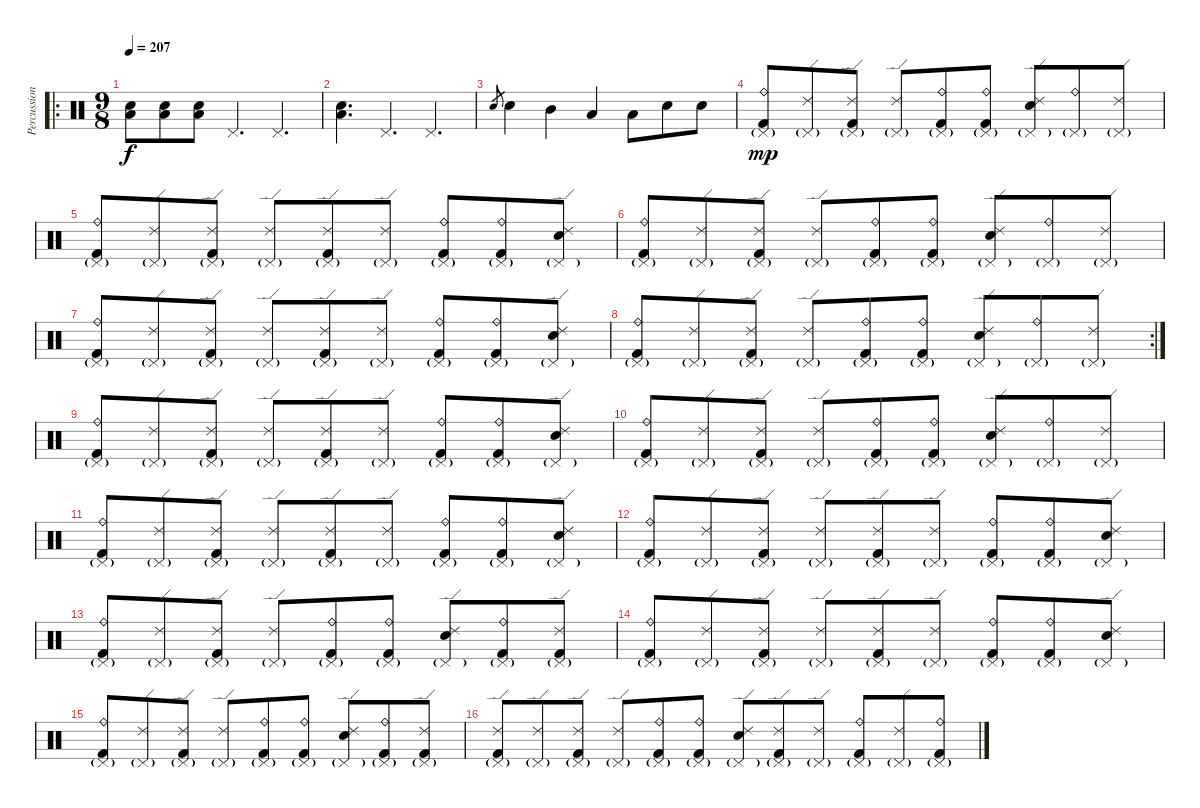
\track ("Percussion" "Percussion") {instrument percussion}
\staff {score}
\articulation defaults
\ro
\ts (9 8)
\tempo 207
\clef neutral
\ks c
("Low Floor Tom (hit)" "Electric Snare (hit)").8{dy f} ("Low Floor Tom (hit)" "Electric Snare (hit)").8 ("Low Floor Tom (hit)" "Electric Snare (hit)").8 "Pedal Hi-Hat (hit)".4{d} "Pedal Hi-Hat (hit)".4{d} |
("Low Floor Tom (hit)" "Electric Snare (hit)").4{d} "Pedal Hi-Hat (hit)".4{d} "Pedal Hi-Hat (hit)".4{d} |
"Electric Snare (hit)".8{gr} "Electric Snare (hit)".4 "Mid Tom (hit)".4 "Low Tom (hit)".4 "Low Tom (hit)".8 "Electric Snare (hit)".8 "Electric Snare (hit)".8 |
("Ride (bell)" "Pedal Hi-Hat (hit)"{g} "Kick (hit) 2").8{dy mp} ("Ride (edge) 2" "Pedal Hi-Hat (hit)"{g}).8 ("Ride (edge) 2" "Pedal Hi-Hat (hit)"{g} "Kick (hit) 2").8 ("Ride (edge) 2" "Pedal Hi-Hat (hit)"{g}).8 ("Ride (bell)" "Pedal Hi-Hat (hit)"{g} "Kick (hit) 2").8 ("Ride (bell)" "Pedal Hi-Hat (hit)"{g} "Kick (hit) 2").8 ("Ride (edge) 2" "Pedal Hi-Hat (hit)"{g} "Electric Snare (hit)").8 ("Ride (bell)" "Pedal Hi-Hat (hit)"{g}).8 ("Ride (edge) 2" "Pedal Hi-Hat (hit)"{g}).8 |
("Ride (bell)" "Pedal Hi-Hat (hit)"{g} "Kick (hit) 2").8 ("Ride (edge) 2" "Pedal Hi-Hat (hit)"{g}).8 ("Ride (edge) 2" "Pedal Hi-Hat (hit)"{g} "Kick (hit) 2").8 ("Ride (edge) 2" "Pedal Hi-Hat (hit)"{g}).8 ("Ride (edge) 2" "Pedal Hi-Hat (hit)"{g} "Kick (hit) 2").8 ("Ride (edge) 2" "Pedal Hi-Hat (hit)"{g}).8 ("Ride (bell)" "Pedal Hi-Hat (hit)"{g} "Kick (hit) 2").8 ("Ride (bell)" "Pedal Hi-Hat (hit)"{g} "Kick (hit) 2").8 ("Ride (edge) 2" "Pedal Hi-Hat (hit)"{g} "Electric Snare (hit)").8 |
("Ride (bell)" "Pedal Hi-Hat (hit)"{g} "Kick (hit) 2").8 ("Ride (edge) 2" "Pedal Hi-Hat (hit)"{g}).8 ("Ride (edge) 2" "Pedal Hi-Hat (hit)"{g} "Kick (hit) 2").8 ("Ride (edge) 2" "Pedal Hi-Hat (hit)"{g}).8 ("Ride (bell)" "Pedal Hi-Hat (hit)"{g} "Kick (hit) 2").8 ("Ride (bell)" "Pedal Hi-Hat (hit)"{g} "Kick (hit) 2").8 ("Ride (edge) 2" "Pedal Hi-Hat (hit)"{g} "Electric Snare (hit)").8 ("Ride (bell)" "Pedal Hi-Hat (hit)"{g}).8 ("Ride (edge) 2" "Pedal Hi-Hat (hit)"{g}).8 |
("Ride (bell)" "Pedal Hi-Hat (hit)"{g} "Kick (hit) 2").8 ("Ride (edge) 2" "Pedal Hi-Hat (hit)"{g}).8 ("Ride (edge) 2" "Pedal Hi-Hat (hit)"{g} "Kick (hit) 2").8 ("Ride (edge) 2" "Pedal Hi-Hat (hit)"{g}).8 ("Ride (edge) 2" "Pedal Hi-Hat (hit)"{g} "Kick (hit) 2").8 ("Ride (edge) 2" "Pedal Hi-Hat (hit)"{g}).8 ("Ride (bell)" "Pedal Hi-Hat (hit)"{g} "Kick (hit) 2").8 ("Ride (bell)" "Pedal Hi-Hat (hit)"{g} "Kick (hit) 2").8 ("Ride (edge) 2" "Pedal Hi-Hat (hit)"{g} "Electric Snare (hit)").8 |
\rc 2
("Ride (bell)" "Pedal Hi-Hat (hit)"{g} "Kick (hit) 2").8 ("Ride (edge) 2" "Pedal Hi-Hat (hit)"{g}).8 ("Ride (edge) 2" "Pedal Hi-Hat (hit)"{g} "Kick (hit) 2").8 ("Ride (edge) 2" "Pedal Hi-Hat (hit)"{g}).8 ("Ride (bell)" "Pedal Hi-Hat (hit)"{g} "Kick (hit) 2").8 ("Ride (bell)" "Pedal Hi-Hat (hit)"{g} "Kick (hit) 2").8 ("Ride (edge) 2" "Pedal Hi-Hat (hit)"{g} "Electric Snare (hit)").8 ("Ride (bell)" "Pedal Hi-Hat (hit)"{g}).8 ("Ride (edge) 2" "Pedal Hi-Hat (hit)"{g}).8 |
("Ride (bell)" "Pedal Hi-Hat (hit)"{g} "Kick (hit) 2").8 ("Ride (edge) 2" "Pedal Hi-Hat (hit)"{g}).8 ("Ride (edge) 2" "Pedal Hi-Hat (hit)"{g} "Kick (hit) 2").8 ("Ride (edge) 2" "Pedal Hi-Hat (hit)"{g}).8 ("Ride (edge) 2" "Pedal Hi-Hat (hit)"{g} "Kick (hit) 2").8 ("Ride (edge) 2" "Pedal Hi-Hat (hit)"{g}).8 ("Ride (bell)" "Pedal Hi-Hat (hit)"{g} "Kick (hit) 2").8 ("Ride (bell)" "Pedal Hi-Hat (hit)"{g} "Kick (hit) 2").8 ("Ride (edge) 2" "Pedal Hi-Hat (hit)"{g} "Electric Snare (hit)").8 |
("Ride (bell)" "Pedal Hi-Hat (hit)"{g} "Kick (hit) 2").8 ("Ride (edge) 2" "Pedal Hi-Hat (hit)"{g}).8 ("Ride (edge) 2" "Pedal Hi-Hat (hit)"{g} "Kick (hit) 2").8 ("Ride (edge) 2" "Pedal Hi-Hat (hit)"{g}).8 ("Ride (bell)" "Pedal Hi-Hat (hit)"{g} "Kick (hit) 2").8 ("Ride (bell)" "Pedal Hi-Hat (hit)"{g} "Kick (hit) 2").8 ("Ride (edge) 2" "Pedal Hi-Hat (hit)"{g} "Electric Snare (hit)").8 ("Ride (bell)" "Pedal Hi-Hat (hit)"{g}).8 ("Ride (edge) 2" "Pedal Hi-Hat (hit)"{g}).8 |
("Ride (bell)" "Pedal Hi-Hat (hit)"{g} "Kick (hit) 2").8 ("Ride (edge) 2" "Pedal Hi-Hat (hit)"{g}).8 ("Ride (edge) 2" "Pedal Hi-Hat (hit)"{g} "Kick (hit) 2").8 ("Ride (edge) 2" "Pedal Hi-Hat (hit)"{g}).8 ("Ride (edge) 2" "Pedal Hi-Hat (hit)"{g} "Kick (hit) 2").8 ("Ride (edge) 2" "Pedal Hi-Hat (hit)"{g}).8 ("Ride (bell)" "Pedal Hi-Hat (hit)"{g} "Kick (hit) 2").8 ("Ride (bell)" "Pedal Hi-Hat (hit)"{g} "Kick (hit) 2").8 ("Ride (edge) 2" "Pedal Hi-Hat (hit)"{g} "Electric Snare (hit)").8 |
("Ride (bell)" "Pedal Hi-Hat (hit)"{g} "Kick (hit) 2").8 ("Ride (edge) 2" "Pedal Hi-Hat (hit)"{g}).8 ("Ride (edge) 2" "Pedal Hi-Hat (hit)"{g} "Kick (hit) 2").8 ("Ride (edge) 2" "Pedal Hi-Hat (hit)"{g}).8 ("Ride (edge) 2" "Pedal Hi-Hat (hit)"{g} "Kick (hit) 2").8 ("Ride (edge) 2" "Pedal Hi-Hat (hit)"{g}).8 ("Ride (bell)" "Pedal Hi-Hat (hit)"{g} "Kick (hit) 2").8 ("Ride (bell)" "Pedal Hi-Hat (hit)"{g} "Kick (hit) 2").8 ("Ride (edge) 2" "Pedal Hi-Hat (hit)"{g} "Electric Snare (hit)").8 |
("Ride (bell)" "Pedal Hi-Hat (hit)"{g} "Kick (hit) 2").8 ("Ride (edge) 2" "Pedal Hi-Hat (hit)"{g}).8 ("Ride (edge) 2" "Pedal Hi-Hat (hit)"{g} "Kick (hit) 2").8 ("Ride (edge) 2" "Pedal Hi-Hat (hit)"{g}).8 ("Ride (bell)" "Pedal Hi-Hat (hit)"{g} "Kick (hit) 2").8 ("Ride (bell)" "Pedal Hi-Hat (hit)"{g} "Kick (hit) 2").8 ("Ride (edge) 2" "Pedal Hi-Hat (hit)"{g} "Electric Snare (hit)").8 ("Ride (bell)" "Pedal Hi-Hat (hit)"{g} "Kick (hit) 2").8 ("Ride (edge) 2" "Pedal Hi-Hat (hit)"{g} "Kick (hit) 2").8 |
("Ride (bell)" "Pedal Hi-Hat (hit)"{g} "Kick (hit) 2").8 ("Ride (edge) 2" "Pedal Hi-Hat (hit)"{g}).8 ("Ride (edge) 2" "Pedal Hi-Hat (hit)"{g} "Kick (hit) 2").8 ("Ride (edge) 2" "Pedal Hi-Hat (hit)"{g}).8 ("Ride (edge) 2" "Pedal Hi-Hat (hit)"{g} "Kick (hit) 2").8 ("Ride (edge) 2" "Pedal Hi-Hat (hit)"{g}).8 ("Ride (bell)" "Pedal Hi-Hat (hit)"{g} "Kick (hit) 2").8 ("Ride (bell)" "Pedal Hi-Hat (hit)"{g} "Kick (hit) 2").8 ("Ride (edge) 2" "Pedal Hi-Hat (hit)"{g} "Electric Snare (hit)").8 |
("Ride (bell)" "Pedal Hi-Hat (hit)"{g} "Kick (hit) 2").8 ("Ride (edge) 2" "Pedal Hi-Hat (hit)"{g}).8 ("Ride (edge) 2" "Pedal Hi-Hat (hit)"{g} "Kick (hit) 2").8 ("Ride (edge) 2" "Pedal Hi-Hat (hit)"{g}).8 ("Ride (bell)" "Pedal Hi-Hat (hit)"{g} "Kick (hit) 2").8 ("Ride (bell)" "Pedal Hi-Hat (hit)"{g} "Kick (hit) 2").8 ("Ride (edge) 2" "Pedal Hi-Hat (hit)"{g} "Electric Snare (hit)").8 ("Ride (bell)" "Pedal Hi-Hat (hit)"{g} "Kick (hit) 2").8 ("Ride (edge) 2" "Pedal Hi-Hat (hit)"{g} "Kick (hit) 2").8 |
("Ride (edge) 2" "Pedal Hi-Hat (hit)"{g} "Kick (hit) 2").8 ("Ride (edge) 2" "Pedal Hi-Hat (hit)"{g}).8 ("Ride (edge) 2" "Pedal Hi-Hat (hit)"{g} "Kick (hit) 2").8 ("Ride (edge) 2" "Pedal Hi-Hat (hit)"{g}).8 ("Ride (bell)" "Pedal Hi-Hat (hit)"{g} "Kick (hit) 2").8 ("Ride (bell)" "Pedal Hi-Hat (hit)"{g} "Kick (hit) 2").8 ("Ride (edge) 2" "Pedal Hi-Hat (hit)"{g} "Electric Snare (hit)").8 ("Ride (edge) 2" "Pedal Hi-Hat (hit)"{g} "Kick (hit) 2").8 ("Ride (edge) 2" "Pedal Hi-Hat (hit)"{g}).8 ("Ride (bell)" "Pedal Hi-Hat (hit)"{g} "Kick (hit) 2").8 ("Ride (edge) 2" "Pedal Hi-Hat (hit)"{g}).8 ("Ride (bell)" "Pedal Hi-Hat (hit)"{g} "Kick (hit) 2").8
